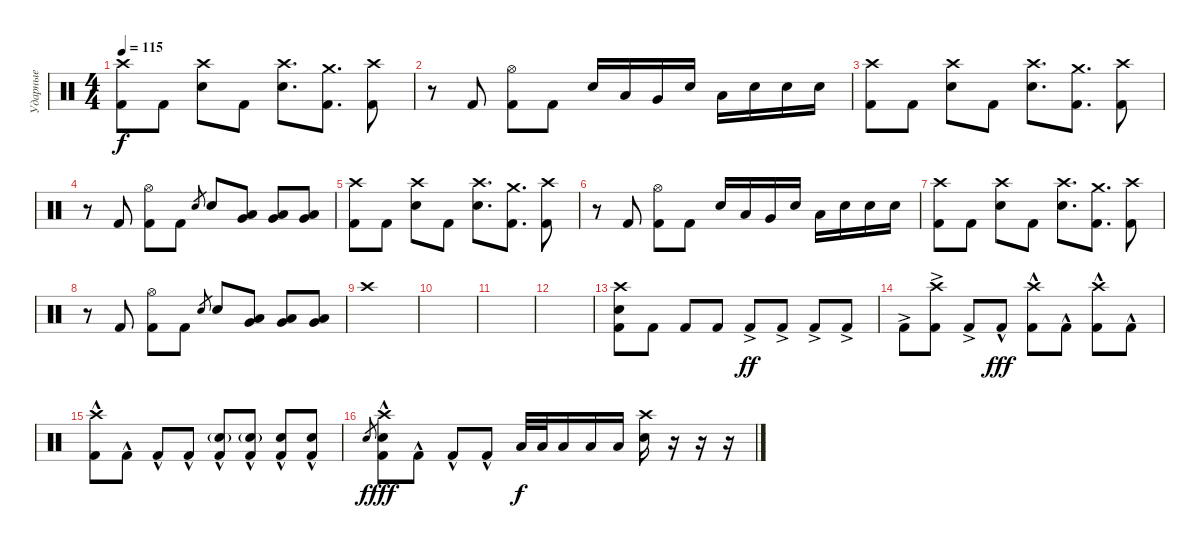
\track ("Ударные" "Ударные") {instrument percussion}
\staff {score}
\articulation defaults
\ts (4 4)
\tempo 115
\clef neutral
\ks c
("Crash high (hit)" "Kick (hit) 2").8{dy f} "Kick (hit) 2".8 ("Crash high (hit)" "Electric Snare (hit)").8 "Kick (hit) 2".8 ("Crash high (hit)" "Electric Snare (hit)").8{d} ("Crash medium (hit)" "Kick (hit) 2").8{d} ("Crash high (hit)" "Kick (hit) 2").8 |
r.8 "Kick (hit) 2".8 ("Hi-Hat (open)" "Kick (hit) 2").8 "Kick (hit) 2".8 "Electric Snare (hit)".16 "Low Tom (hit)".16 "Very Low Tom (hit)".16 "Electric Snare (hit)".16 "Low Tom (hit)".16 "Electric Snare (hit)".16 "Electric Snare (hit)".16 "Electric Snare (hit)".16 |
("Crash high (hit)" "Kick (hit) 2").8 "Kick (hit) 2".8 ("Crash high (hit)" "Electric Snare (hit)").8 "Kick (hit) 2".8 ("Crash high (hit)" "Electric Snare (hit)").8{d} ("Crash medium (hit)" "Kick (hit) 2").8{d} ("Crash high (hit)" "Kick (hit) 2").8 |
r.8 "Kick (hit) 2".8 ("Hi-Hat (open)" "Kick (hit) 2").8 "Kick (hit) 2".8 "Electric Snare (hit)".8{gr} "Electric Snare (hit)".8 ("Low Floor Tom (hit)" "Very Low Tom (hit)").8 ("Low Floor Tom (hit)" "Very Low Tom (hit)").8 ("Low Floor Tom (hit)" "Very Low Tom (hit)").8 |
("Crash high (hit)" "Kick (hit) 2").8 "Kick (hit) 2".8 ("Crash high (hit)" "Electric Snare (hit)").8 "Kick (hit) 2".8 ("Crash high (hit)" "Electric Snare (hit)").8{d} ("Crash medium (hit)" "Kick (hit) 2").8{d} ("Crash high (hit)" "Kick (hit) 2").8 |
r.8 "Kick (hit) 2".8 ("Hi-Hat (open)" "Kick (hit) 2").8 "Kick (hit) 2".8 "Electric Snare (hit)".16 "Low Tom (hit)".16 "Very Low Tom (hit)".16 "Electric Snare (hit)".16 "Low Tom (hit)".16 "Electric Snare (hit)".16 "Electric Snare (hit)".16 "Electric Snare (hit)".16 |
("Crash high (hit)" "Kick (hit) 2").8 "Kick (hit) 2".8 ("Crash high (hit)" "Electric Snare (hit)").8 "Kick (hit) 2".8 ("Crash high (hit)" "Electric Snare (hit)").8{d} ("Crash medium (hit)" "Kick (hit) 2").8{d} ("Crash high (hit)" "Kick (hit) 2").8 |
r.8 "Kick (hit) 2".8 ("Hi-Hat (open)" "Kick (hit) 2").8 "Kick (hit) 2".8 "Electric Snare (hit)".8{gr} "Electric Snare (hit)".8 ("Low Floor Tom (hit)" "Very Low Tom (hit)").8 ("Low Floor Tom (hit)" "Very Low Tom (hit)").8 ("Low Floor Tom (hit)" "Very Low Tom (hit)").8 |
"Crash high (hit)".1 |
|
|
|
("Crash high (hit)" "Electric Snare (hit)" "Kick (hit) 2").8 "Kick (hit) 2".8 "Kick (hit) 2".8 "Kick (hit) 2".8 "Kick (hit) 2"{ac}.8{dy ff} "Kick (hit) 2"{ac}.8 "Kick (hit) 2"{ac}.8 "Kick (hit) 2"{ac}.8 |
"Kick (hit) 2"{ac}.8 ("Crash high (hit)" "Kick (hit) 2"{ac}).8 "Kick (hit) 2"{ac}.8 "Kick (hit) 2"{hac}.8{dy fff} ("Crash high (hit)" "Kick (hit) 2"{hac}).8 "Kick (hit) 2"{hac}.8 ("Crash high (hit)" "Kick (hit) 2"{hac}).8 "Kick (hit) 2"{hac}.8 |
("Crash high (hit)" "Kick (hit) 2"{hac}).8 "Kick (hit) 2"{hac}.8 "Kick (hit) 2"{hac}.8 "Kick (hit) 2"{hac}.8 ("Electric Snare (hit)"{g} "Kick (hit) 2"{hac}).8 ("Electric Snare (hit)"{g} "Kick (hit) 2"{hac}).8 ("Electric Snare (hit)" "Kick (hit) 2"{hac}).8 ("Electric Snare (hit)" "Kick (hit) 2"{hac}).8 |
"Electric Snare (hit)".8{gr dy f} ("Crash high (hit)" "Electric Snare (hit)" "Kick (hit) 2"{hac}).8{dy fff} "Kick (hit) 2"{hac}.8 "Kick (hit) 2"{hac}.8 "Kick (hit) 2"{hac}.8 "Low Tom (hit)".32{dy f} "Low Tom (hit)".32 "Low Tom (hit)".16 "Low Tom (hit)".16 "Low Tom (hit)".16 ("Crash high (hit)" "Electric Snare (hit)").16 r.16 r.16 r.16
